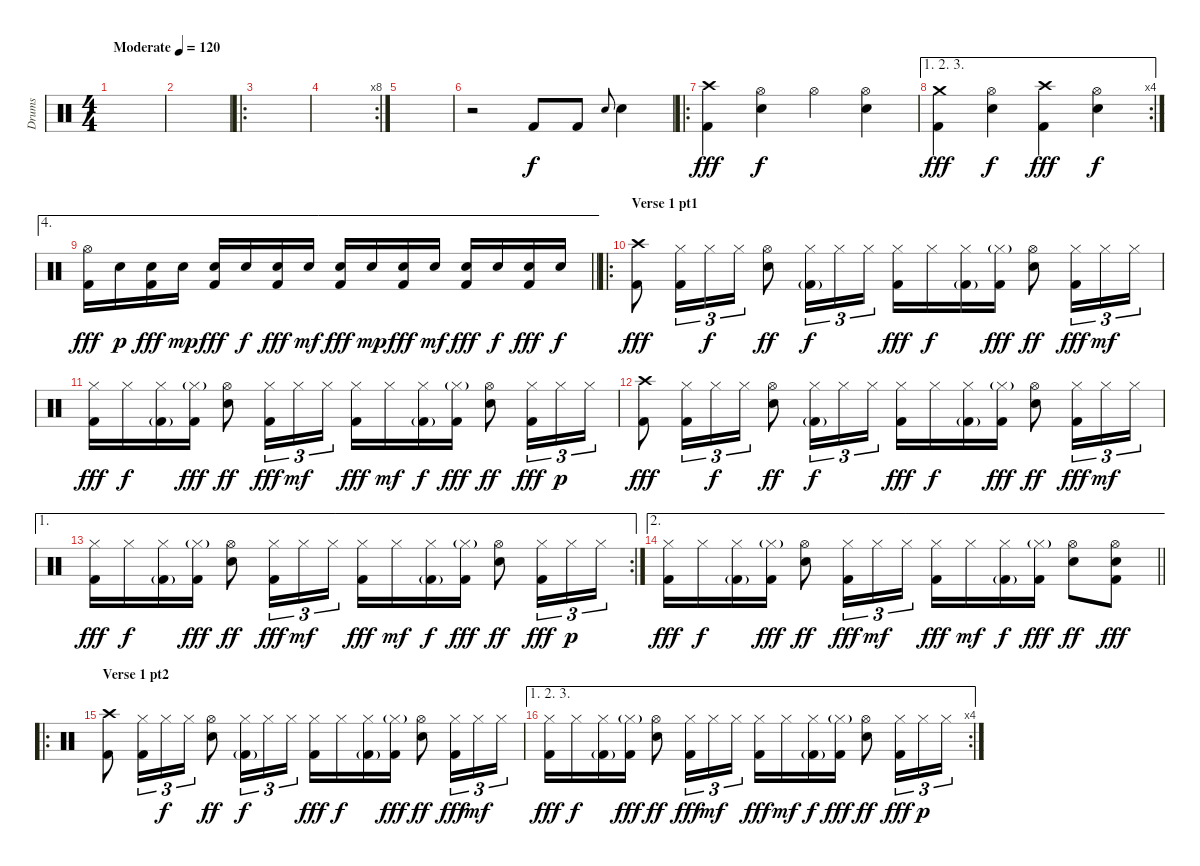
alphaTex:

\track ("Drums" "Drums") {instrument percussion}
\staff {score}
\articulation defaults
\ts (4 4)
\tempo (120 "Moderate")
\clef neutral
\ks c
|
|
\ro
|
\rc 8
|
|
r.2 "Kick (hit) 2".8 "Kick (hit) 2".8 "Electric Snare (hit)".8{gr onbeat} "Electric Snare (hit)".4 |
\ro
("Crash high (hit)" "Kick (hit) 2").4{dy fff} ("Hi-Hat (open)" "Electric Snare (hit)").4{dy f} "Hi-Hat (open)".4 ("Hi-Hat (open)" "Electric Snare (hit)").4 |
\ae (1 2 3)
\rc 4
("Crash medium (hit)" "Kick (hit) 2").4{dy fff} ("Hi-Hat (open)" "Electric Snare (hit)").4{dy f} ("Crash high (hit)" "Kick (hit) 2").4{dy fff} ("Hi-Hat (open)" "Electric Snare (hit)").4{dy f} |
\ae 4
\barLineRight lightlight
("Hi-Hat (open)" "Kick (hit) 2").16{dy fff} "Electric Snare (hit)".16{dy p} ("Electric Snare (hit)" "Kick (hit) 2").16{dy fff} "Electric Snare (hit)".16{dy mp} ("Electric Snare (hit)" "Kick (hit) 2").16{dy fff} "Electric Snare (hit)".16{dy f} ("Electric Snare (hit)" "Kick (hit) 2").16{dy fff} "Electric Snare (hit)".16{dy mf} ("Electric Snare (hit)" "Kick (hit) 2").16{dy fff} "Electric Snare (hit)".16{dy mp} ("Electric Snare (hit)" "Kick (hit) 2").16{dy fff} "Electric Snare (hit)".16{dy mf} ("Electric Snare (hit)" "Kick (hit) 2").16{dy fff} "Electric Snare (hit)".16{dy f} ("Electric Snare (hit)" "Kick (hit) 2").16{dy fff} "Electric Snare (hit)".16{dy f} |
\ro
\section ("" "Verse 1 pt1")
("Crash high (hit)" "Kick (hit) 2").8{dy fff} ("Hi-Hat (closed)" "Kick (hit) 2").16{tu (3 2)} "Hi-Hat (closed)".16{tu (3 2) dy f} "Hi-Hat (closed)".16{tu (3 2)} ("Hi-Hat (open)" "Electric Snare (hit)").8{dy ff} ("Hi-Hat (closed)" "Kick (hit) 2"{g}).16{tu (3 2) dy f} "Hi-Hat (closed)".16{tu (3 2)} "Hi-Hat (closed)".16{tu (3 2)} ("Hi-Hat (closed)" "Kick (hit) 2").16{dy fff} "Hi-Hat (closed)".16{dy f} ("Hi-Hat (closed)" "Kick (hit) 2"{g}).16 ("Hi-Hat (closed)"{g} "Kick (hit) 2").16{dy fff} ("Hi-Hat (open)" "Electric Snare (hit)").8{dy ff} ("Hi-Hat (closed)" "Kick (hit) 2").16{tu (3 2) dy fff} "Hi-Hat (closed)".16{tu (3 2) dy mf} "Hi-Hat (closed)".16{tu (3 2)} |
("Hi-Hat (closed)" "Kick (hit) 2").16{dy fff} "Hi-Hat (closed)".16{dy f} ("Hi-Hat (closed)" "Kick (hit) 2"{g}).16 ("Hi-Hat (closed)"{g} "Kick (hit) 2").16{dy fff} ("Hi-Hat (open)" "Electric Snare (hit)").8{dy ff} ("Hi-Hat (closed)" "Kick (hit) 2").16{tu (3 2) dy fff} "Hi-Hat (closed)".16{tu (3 2) dy mf} "Hi-Hat (closed)".16{tu (3 2)} ("Hi-Hat (closed)" "Kick (hit) 2").16{dy fff} "Hi-Hat (closed)".16{dy mf} ("Hi-Hat (closed)" "Kick (hit) 2"{g}).16{dy f} ("Hi-Hat (closed)"{g} "Kick (hit) 2").16{dy fff} ("Hi-Hat (open)" "Electric Snare (hit)").8{dy ff} ("Hi-Hat (closed)" "Kick (hit) 2").16{tu (3 2) dy fff} "Hi-Hat (closed)".16{tu (3 2) dy p} "Hi-Hat (closed)".16{tu (3 2)} |
("Crash high (hit)" "Kick (hit) 2").8{dy fff} ("Hi-Hat (closed)" "Kick (hit) 2").16{tu (3 2)} "Hi-Hat (closed)".16{tu (3 2) dy f} "Hi-Hat (closed)".16{tu (3 2)} ("Hi-Hat (open)" "Electric Snare (hit)").8{dy ff} ("Hi-Hat (closed)" "Kick (hit) 2"{g}).16{tu (3 2) dy f} "Hi-Hat (closed)".16{tu (3 2)} "Hi-Hat (closed)".16{tu (3 2)} ("Hi-Hat (closed)" "Kick (hit) 2").16{dy fff} "Hi-Hat (closed)".16{dy f} ("Hi-Hat (closed)" "Kick (hit) 2"{g}).16 ("Hi-Hat (closed)"{g} "Kick (hit) 2").16{dy fff} ("Hi-Hat (open)" "Electric Snare (hit)").8{dy ff} ("Hi-Hat (closed)" "Kick (hit) 2").16{tu (3 2) dy fff} "Hi-Hat (closed)".16{tu (3 2) dy mf} "Hi-Hat (closed)".16{tu (3 2)} |
\ae 1
\rc 2
("Hi-Hat (closed)" "Kick (hit) 2").16{dy fff} "Hi-Hat (closed)".16{dy f} ("Hi-Hat (closed)" "Kick (hit) 2"{g}).16 ("Hi-Hat (closed)"{g} "Kick (hit) 2").16{dy fff} ("Hi-Hat (open)" "Electric Snare (hit)").8{dy ff} ("Hi-Hat (closed)" "Kick (hit) 2").16{tu (3 2) dy fff} "Hi-Hat (closed)".16{tu (3 2) dy mf} "Hi-Hat (closed)".16{tu (3 2)} ("Hi-Hat (closed)" "Kick (hit) 2").16{dy fff} "Hi-Hat (closed)".16{dy mf} ("Hi-Hat (closed)" "Kick (hit) 2"{g}).16{dy f} ("Hi-Hat (closed)"{g} "Kick (hit) 2").16{dy fff} ("Hi-Hat (open)" "Electric Snare (hit)").8{dy ff} ("Hi-Hat (closed)" "Kick (hit) 2").16{tu (3 2) dy fff} "Hi-Hat (closed)".16{tu (3 2) dy p} "Hi-Hat (closed)".16{tu (3 2)} |
\ae 2
\barLineRight lightlight
("Hi-Hat (closed)" "Kick (hit) 2").16{dy fff} "Hi-Hat (closed)".16{dy f} ("Hi-Hat (closed)" "Kick (hit) 2"{g}).16 ("Hi-Hat (closed)"{g} "Kick (hit) 2").16{dy fff} ("Hi-Hat (open)" "Electric Snare (hit)").8{dy ff} ("Hi-Hat (closed)" "Kick (hit) 2").16{tu (3 2) dy fff} "Hi-Hat (closed)".16{tu (3 2) dy mf} "Hi-Hat (closed)".16{tu (3 2)} ("Hi-Hat (closed)" "Kick (hit) 2").16{dy fff} "Hi-Hat (closed)".16{dy mf} ("Hi-Hat (closed)" "Kick (hit) 2"{g}).16{dy f} ("Hi-Hat (closed)"{g} "Kick (hit) 2").16{dy fff} ("Hi-Hat (open)" "Electric Snare (hit)").8{dy ff} ("Hi-Hat (open)" "Electric Snare (hit)" "Kick (hit) 2").8{dy fff} |
\ro
\section ("" "Verse 1 pt2")
("Crash high (hit)" "Kick (hit) 2").8 ("Hi-Hat (closed)" "Kick (hit) 2").16{tu (3 2)} "Hi-Hat (closed)".16{tu (3 2) dy f} "Hi-Hat (closed)".16{tu (3 2)} ("Hi-Hat (open)" "Electric Snare (hit)").8{dy ff} ("Hi-Hat (closed)" "Kick (hit) 2"{g}).16{tu (3 2) dy f} "Hi-Hat (closed)".16{tu (3 2)} "Hi-Hat (closed)".16{tu (3 2)} ("Hi-Hat (closed)" "Kick (hit) 2").16{dy fff} "Hi-Hat (closed)".16{dy f} ("Hi-Hat (closed)" "Kick (hit) 2"{g}).16 ("Hi-Hat (closed)"{g} "Kick (hit) 2").16{dy fff} ("Hi-Hat (open)" "Electric Snare (hit)").8{dy ff} ("Hi-Hat (closed)" "Kick (hit) 2").16{tu (3 2) dy fff} "Hi-Hat (closed)".16{tu (3 2) dy mf} "Hi-Hat (closed)".16{tu (3 2)} |
\ae (1 2 3)
\rc 4
("Hi-Hat (closed)" "Kick (hit) 2").16{dy fff} "Hi-Hat (closed)".16{dy f} ("Hi-Hat (closed)" "Kick (hit) 2"{g}).16 ("Hi-Hat (closed)"{g} "Kick (hit) 2").16{dy fff} ("Hi-Hat (open)" "Electric Snare (hit)").8{dy ff} ("Hi-Hat (closed)" "Kick (hit) 2").16{tu (3 2) dy fff} "Hi-Hat (closed)".16{tu (3 2) dy mf} "Hi-Hat (closed)".16{tu (3 2)} ("Hi-Hat (closed)" "Kick (hit) 2").16{dy fff} "Hi-Hat (closed)".16{dy mf} ("Hi-Hat (closed)" "Kick (hit) 2"{g}).16{dy f} ("Hi-Hat (closed)"{g} "Kick (hit) 2").16{dy fff} ("Hi-Hat (open)" "Electric Snare (hit)").8{dy ff} ("Hi-Hat (closed)" "Kick (hit) 2").16{tu (3 2) dy fff} "Hi-Hat (closed)".16{tu (3 2) dy p} "Hi-Hat (closed)".16{tu (3 2)}
